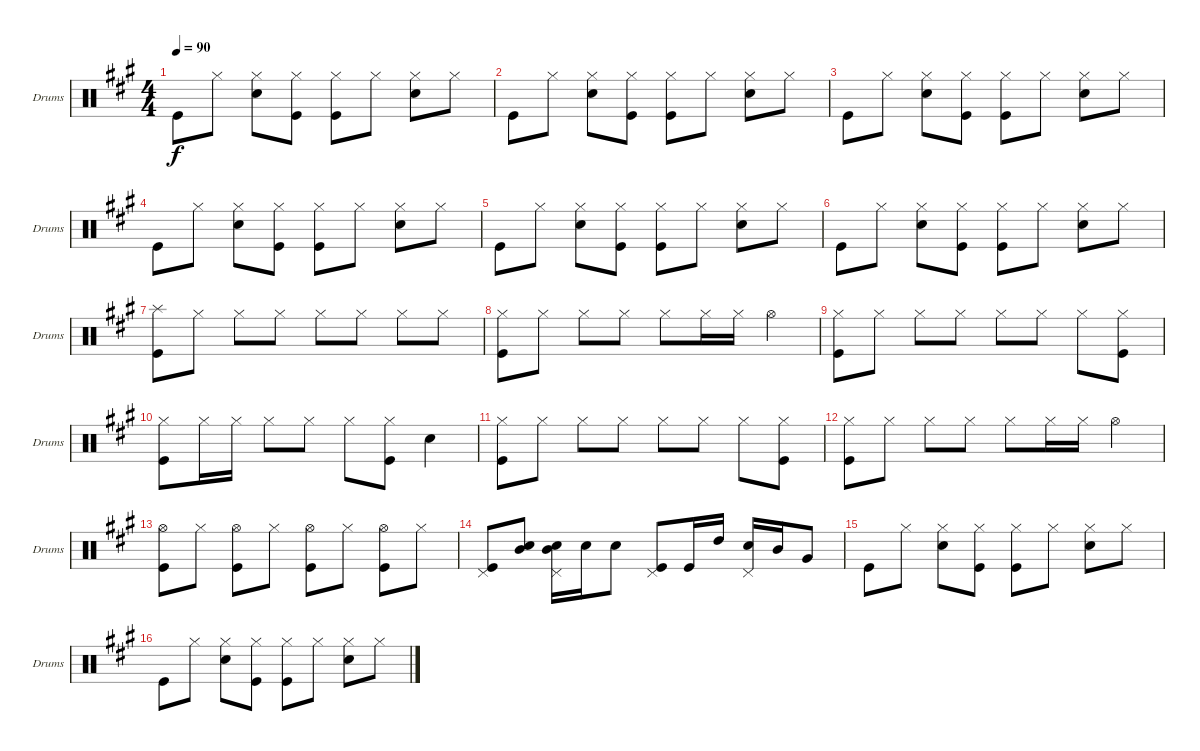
\bracketExtendMode groupsimilarinstruments
\singleTrackTrackNamePolicy allsystems
\multiTrackTrackNamePolicy allsystems
\firstSystemTrackNameOrientation horizontal
\otherSystemsTrackNameOrientation horizontal
\track ("drum" "Drums") {instrument percussion}
\staff {score}
\articulation defaults
\ts (4 4)
\scale
0.333333
\tempo 90
\accidentals auto
\clef neutral
\ottava regular
\simile none
\ks a "Kick (hit)".8{dy f} "Hi-Hat (closed)".8
("Hi-Hat (closed)" "Snare (hit) 2").8 ("Hi-Hat (closed)" "Kick (hit)").8 ("Hi-Hat (closed)" "Kick (hit)").8 "Hi-Hat (closed)".8 ("Hi-Hat (closed)" "Snare (hit) 2").8 "Hi-Hat (closed)".8 |
\scale
0.333333 "Kick (hit)".8 "Hi-Hat (closed)".8 ("Hi-Hat (closed)" "Snare (hit) 2").8 ("Hi-Hat (closed)" "Kick (hit)").8 ("Hi-Hat (closed)" "Kick (hit)").8 "Hi-Hat (closed)".8 ("Hi-Hat (closed)" "Snare (hit) 2").8 "Hi-Hat (closed)".8 |
\scale
0.333333 "Kick (hit)".8 "Hi-Hat (closed)".8 ("Hi-Hat (closed)" "Snare (hit) 2").8 ("Hi-Hat (closed)" "Kick (hit)").8 ("Hi-Hat (closed)" "Kick (hit)").8 "Hi-Hat (closed)".8 ("Hi-Hat (closed)" "Snare (hit) 2").8 "Hi-Hat (closed)".8 |
\scale
0.424437 "Kick (hit)".8 "Hi-Hat (closed)".8 ("Hi-Hat (closed)" "Snare (hit) 2").8 ("Hi-Hat (closed)" "Kick (hit)").8 ("Hi-Hat (closed)" "Kick (hit)").8 "Hi-Hat (closed)".8 ("Hi-Hat (closed)" "Snare (hit) 2").8 "Hi-Hat (closed)".8 |
\scale
0.424437 "Kick (hit)".8 "Hi-Hat (closed)".8 ("Hi-Hat (closed)" "Snare (hit) 2").8 ("Hi-Hat (closed)" "Kick (hit)").8 ("Hi-Hat (closed)" "Kick (hit)").8 "Hi-Hat (closed)".8 ("Hi-Hat (closed)" "Snare (hit) 2").8 "Hi-Hat (closed)".8 |
\scale
0.151125 "Kick (hit)".8 "Hi-Hat (closed)".8 ("Hi-Hat (closed)" "Snare (hit) 2").8 ("Hi-Hat (closed)" "Kick (hit)").8 ("Hi-Hat (closed)" "Kick (hit)").8 "Hi-Hat (closed)".8 ("Hi-Hat (closed)" "Snare (hit) 2").8 "Hi-Hat (closed)".8 |
\scale
0.447458 ("Kick (hit)" "Splash (hit)").8 "Hi-Hat (closed)".8 "Hi-Hat (closed)".8 "Hi-Hat (closed)".8 "Hi-Hat (closed)".8 "Hi-Hat (closed)".8 "Hi-Hat (closed)".8 "Hi-Hat (closed)".8 |
\scale
0.105085 ("Kick (hit)" "Hi-Hat (closed)").8 "Hi-Hat (closed)".8 "Hi-Hat (closed)".8 "Hi-Hat (closed)".8 "Hi-Hat (closed)".8 "Hi-Hat (closed)".16 "Hi-Hat (closed)".16 "Hi-Hat (open)".4 |
\scale
0.447458 ("Kick (hit)" "Hi-Hat (closed)").8 "Hi-Hat (closed)".8 "Hi-Hat (closed)".8 "Hi-Hat (closed)".8 "Hi-Hat (closed)".8 "Hi-Hat (closed)".8 "Hi-Hat (closed)".8 ("Kick (hit)" "Hi-Hat (closed)").8 |
\scale
0.340081 ("Kick (hit)" "Hi-Hat (closed)").8 "Hi-Hat (closed)".16 "Hi-Hat (closed)".16 "Hi-Hat (closed)".8 "Hi-Hat (closed)".8 "Hi-Hat (closed)".8 ("Kick (hit)" "Hi-Hat (closed)").8 "Snare (hit) 2".4 |
\scale
0.534413 ("Kick (hit)" "Hi-Hat (closed)").8 "Hi-Hat (closed)".8 "Hi-Hat (closed)".8 "Hi-Hat (closed)".8 "Hi-Hat (closed)".8 "Hi-Hat (closed)".8 "Hi-Hat (closed)".8 ("Kick (hit)" "Hi-Hat (closed)").8 |
\scale
0.125506 ("Kick (hit)" "Hi-Hat (closed)").8 "Hi-Hat (closed)".8 "Hi-Hat (closed)".8 "Hi-Hat (closed)".8 "Hi-Hat (closed)".8 "Hi-Hat (closed)".16 "Hi-Hat (closed)".16 "Hi-Hat (open)".4 |
\scale
0.282051 ("Kick (hit)" "Hi-Hat (open)").8 "Hi-Hat (closed)".8 ("Kick (hit)" "Hi-Hat (open)").8 "Hi-Hat (closed)".8 ("Kick (hit)" "Hi-Hat (open)").8 "Hi-Hat (closed)".8 ("Kick (hit)" "Hi-Hat (open)").8 "Hi-Hat (closed)".8 |
\scale
0.435897 ("Kick (hit)" "Pedal Hi-Hat (hit)").8 ("Snare (hit) 2" "Mid Tom (hit)").8 ("Snare (hit) 2" "Pedal Hi-Hat (hit)" "Mid Tom (hit)").16 "Snare (hit) 2".16 "Snare (hit) 2".8 ("Kick (hit)" "Pedal Hi-Hat (hit)").8 "Kick (hit)".16 "High Tom (hit)".16 ("Snare (hit) 2" "Pedal Hi-Hat (hit)").16 "Mid Tom (hit)".16 "Very Low Tom (hit)".8 |
\scale
0.282051 "Kick (hit)".8 "Hi-Hat (closed)".8 ("Hi-Hat (closed)" "Snare (hit) 2").8 ("Hi-Hat (closed)" "Kick (hit)").8 ("Hi-Hat (closed)" "Kick (hit)").8 "Hi-Hat (closed)".8 ("Hi-Hat (closed)" "Snare (hit) 2").8 "Hi-Hat (closed)".8 |
\scale
0.305785 "Kick (hit)".8 "Hi-Hat (closed)".8 ("Hi-Hat (closed)" "Snare (hit) 2").8 ("Hi-Hat (closed)" "Kick (hit)").8 ("Hi-Hat (closed)" "Kick (hit)").8 "Hi-Hat (closed)".8 ("Hi-Hat (closed)" "Snare (hit) 2").8 "Hi-Hat (closed)".8
